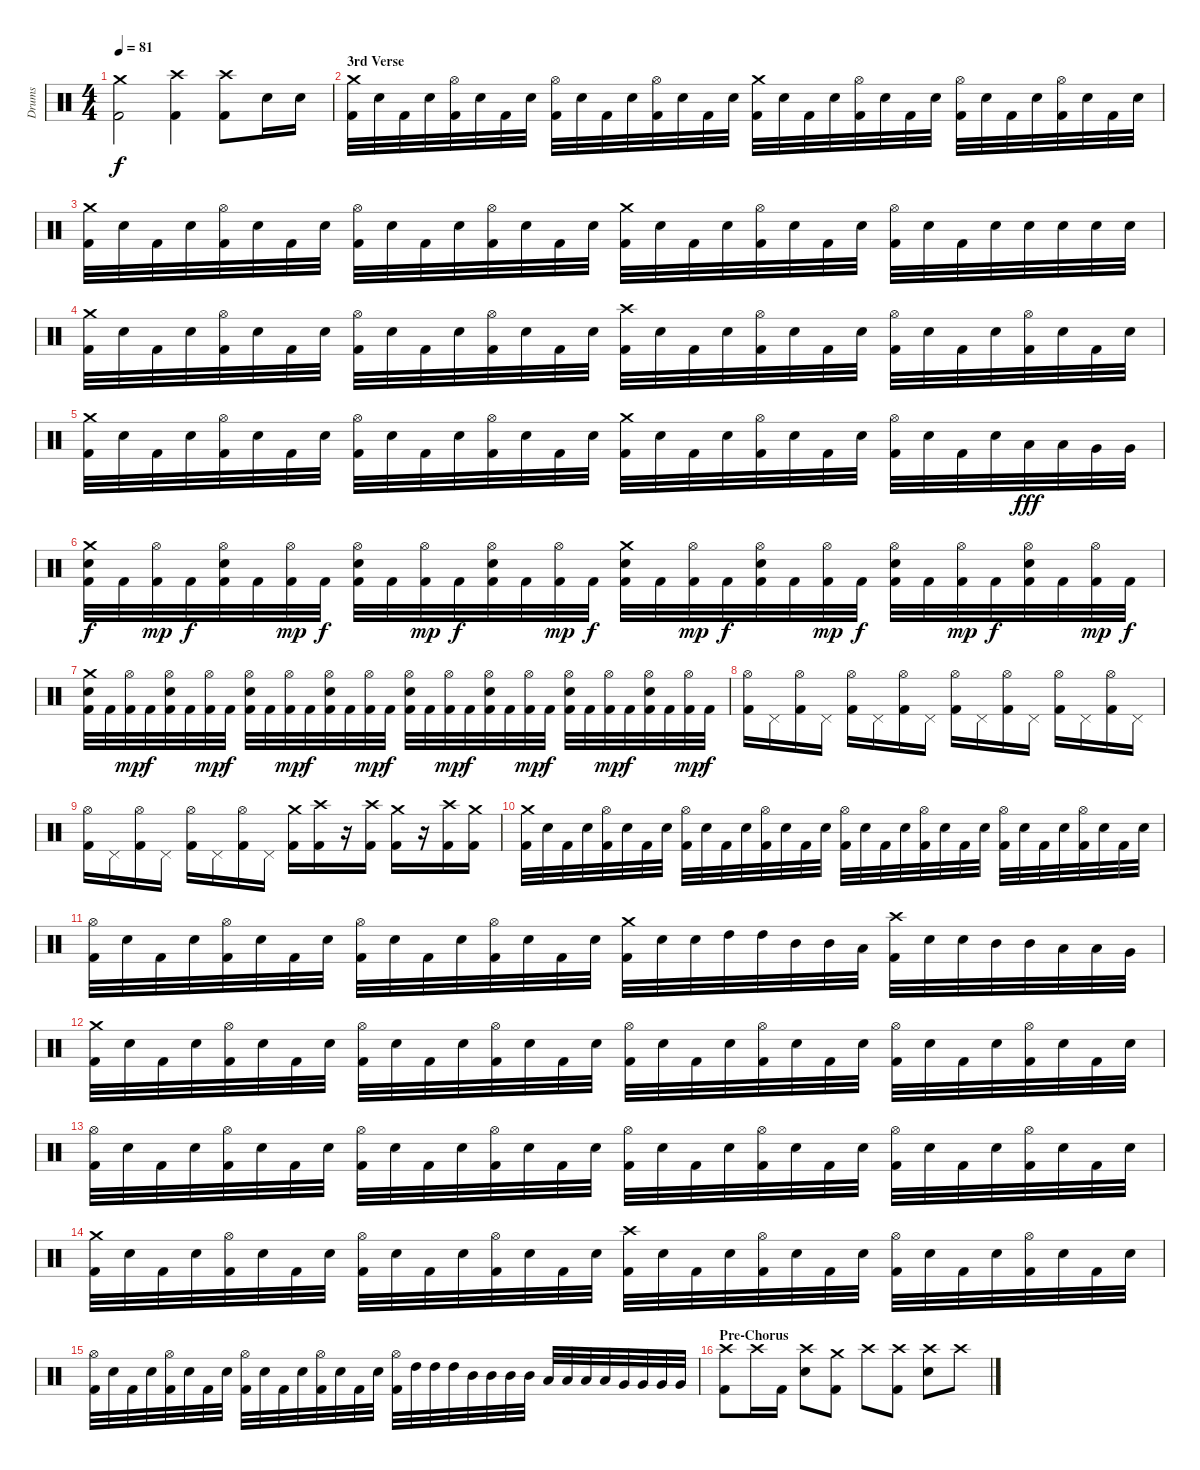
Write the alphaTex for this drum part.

\track ("Drums" "Drums") {instrument percussion}
\staff {score}
\articulation defaults
\ts (4 4)
\tempo 81
\clef neutral
\ks c
("Crash medium (hit)" "Kick (hit) 2").2{dy f} ("Crash high (hit)" "Kick (hit) 2").4 ("Crash high (hit)" "Kick (hit) 2").8 "Electric Snare (hit)".16 "Electric Snare (hit)".16 |
\section ("" "3rd Verse")
("Crash medium (hit)" "Kick (hit) 2").32 "Electric Snare (hit)".32 "Kick (hit) 2".32 "Electric Snare (hit)".32 ("Hi-Hat (open)" "Kick (hit) 2").32 "Electric Snare (hit)".32 "Kick (hit) 2".32 "Electric Snare (hit)".32 ("Hi-Hat (open)" "Kick (hit) 2").32 "Electric Snare (hit)".32 "Kick (hit) 2".32 "Electric Snare (hit)".32 ("Hi-Hat (open)" "Kick (hit) 2").32 "Electric Snare (hit)".32 "Kick (hit) 2".32 "Electric Snare (hit)".32 ("Crash medium (hit)" "Kick (hit) 2").32 "Electric Snare (hit)".32 "Kick (hit) 2".32 "Electric Snare (hit)".32 ("Hi-Hat (open)" "Kick (hit) 2").32 "Electric Snare (hit)".32 "Kick (hit) 2".32 "Electric Snare (hit)".32 ("Hi-Hat (open)" "Kick (hit) 2").32 "Electric Snare (hit)".32 "Kick (hit) 2".32 "Electric Snare (hit)".32 ("Hi-Hat (open)" "Kick (hit) 2").32 "Electric Snare (hit)".32 "Kick (hit) 2".32 "Electric Snare (hit)".32 |
("Crash medium (hit)" "Kick (hit) 2").32 "Electric Snare (hit)".32 "Kick (hit) 2".32 "Electric Snare (hit)".32 ("Hi-Hat (open)" "Kick (hit) 2").32 "Electric Snare (hit)".32 "Kick (hit) 2".32 "Electric Snare (hit)".32 ("Hi-Hat (open)" "Kick (hit) 2").32 "Electric Snare (hit)".32 "Kick (hit) 2".32 "Electric Snare (hit)".32 ("Hi-Hat (open)" "Kick (hit) 2").32 "Electric Snare (hit)".32 "Kick (hit) 2".32 "Electric Snare (hit)".32 ("Crash medium (hit)" "Kick (hit) 2").32 "Electric Snare (hit)".32 "Kick (hit) 2".32 "Electric Snare (hit)".32 ("Hi-Hat (open)" "Kick (hit) 2").32 "Electric Snare (hit)".32 "Kick (hit) 2".32 "Electric Snare (hit)".32 ("Hi-Hat (open)" "Kick (hit) 2").32 "Electric Snare (hit)".32 "Kick (hit) 2".32 "Electric Snare (hit)".32 "Electric Snare (hit)".32 "Electric Snare (hit)".32 "Electric Snare (hit)".32 "Electric Snare (hit)".32 |
("Crash medium (hit)" "Kick (hit) 2").32 "Electric Snare (hit)".32 "Kick (hit) 2".32 "Electric Snare (hit)".32 ("Hi-Hat (open)" "Kick (hit) 2").32 "Electric Snare (hit)".32 "Kick (hit) 2".32 "Electric Snare (hit)".32 ("Hi-Hat (open)" "Kick (hit) 2").32 "Electric Snare (hit)".32 "Kick (hit) 2".32 "Electric Snare (hit)".32 ("Hi-Hat (open)" "Kick (hit) 2").32 "Electric Snare (hit)".32 "Kick (hit) 2".32 "Electric Snare (hit)".32 ("Crash high (hit)" "Kick (hit) 2").32 "Electric Snare (hit)".32 "Kick (hit) 2".32 "Electric Snare (hit)".32 ("Hi-Hat (open)" "Kick (hit) 2").32 "Electric Snare (hit)".32 "Kick (hit) 2".32 "Electric Snare (hit)".32 ("Hi-Hat (open)" "Kick (hit) 2").32 "Electric Snare (hit)".32 "Kick (hit) 2".32 "Electric Snare (hit)".32 ("Hi-Hat (open)" "Kick (hit) 2").32 "Electric Snare (hit)".32 "Kick (hit) 2".32 "Electric Snare (hit)".32 |
("Crash medium (hit)" "Kick (hit) 2").32 "Electric Snare (hit)".32 "Kick (hit) 2".32 "Electric Snare (hit)".32 ("Hi-Hat (open)" "Kick (hit) 2").32 "Electric Snare (hit)".32 "Kick (hit) 2".32 "Electric Snare (hit)".32 ("Hi-Hat (open)" "Kick (hit) 2").32 "Electric Snare (hit)".32 "Kick (hit) 2".32 "Electric Snare (hit)".32 ("Hi-Hat (open)" "Kick (hit) 2").32 "Electric Snare (hit)".32 "Kick (hit) 2".32 "Electric Snare (hit)".32 ("Crash medium (hit)" "Kick (hit) 2").32 "Electric Snare (hit)".32 "Kick (hit) 2".32 "Electric Snare (hit)".32 ("Hi-Hat (open)" "Kick (hit) 2").32 "Electric Snare (hit)".32 "Kick (hit) 2".32 "Electric Snare (hit)".32 ("Hi-Hat (open)" "Kick (hit) 2").32 "Electric Snare (hit)".32 "Kick (hit) 2".32 "Electric Snare (hit)".32 "Low Tom (hit)".32{dy fff} "Low Tom (hit)".32 "Very Low Tom (hit)".32 "Very Low Tom (hit)".32 |
("Crash medium (hit)" "Electric Snare (hit)" "Kick (hit) 2").32{dy f} "Kick (hit) 2".32 ("Hi-Hat (open)" "Kick (hit) 2").32{dy mp} "Kick (hit) 2".32{dy f} ("Hi-Hat (open)" "Electric Snare (hit)" "Kick (hit) 2").32 "Kick (hit) 2".32 ("Hi-Hat (open)" "Kick (hit) 2").32{dy mp} "Kick (hit) 2".32{dy f} ("Hi-Hat (open)" "Electric Snare (hit)" "Kick (hit) 2").32 "Kick (hit) 2".32 ("Hi-Hat (open)" "Kick (hit) 2").32{dy mp} "Kick (hit) 2".32{dy f} ("Hi-Hat (open)" "Electric Snare (hit)" "Kick (hit) 2").32 "Kick (hit) 2".32 ("Hi-Hat (open)" "Kick (hit) 2").32{dy mp} "Kick (hit) 2".32{dy f} ("Crash medium (hit)" "Electric Snare (hit)" "Kick (hit) 2").32 "Kick (hit) 2".32 ("Hi-Hat (open)" "Kick (hit) 2").32{dy mp} "Kick (hit) 2".32{dy f} ("Hi-Hat (open)" "Electric Snare (hit)" "Kick (hit) 2").32 "Kick (hit) 2".32 ("Hi-Hat (open)" "Kick (hit) 2").32{dy mp} "Kick (hit) 2".32{dy f} ("Hi-Hat (open)" "Electric Snare (hit)" "Kick (hit) 2").32 "Kick (hit) 2".32 ("Hi-Hat (open)" "Kick (hit) 2").32{dy mp} "Kick (hit) 2".32{dy f} ("Hi-Hat (open)" "Electric Snare (hit)" "Kick (hit) 2").32 "Kick (hit) 2".32 ("Hi-Hat (open)" "Kick (hit) 2").32{dy mp} "Kick (hit) 2".32{dy f} |
("Crash medium (hit)" "Electric Snare (hit)" "Kick (hit) 2").32 "Kick (hit) 2".32 ("Hi-Hat (open)" "Kick (hit) 2").32{dy mp} "Kick (hit) 2".32{dy f} ("Hi-Hat (open)" "Electric Snare (hit)" "Kick (hit) 2").32 "Kick (hit) 2".32 ("Hi-Hat (open)" "Kick (hit) 2").32{dy mp} "Kick (hit) 2".32{dy f} ("Hi-Hat (open)" "Electric Snare (hit)" "Kick (hit) 2").32 "Kick (hit) 2".32 ("Hi-Hat (open)" "Kick (hit) 2").32{dy mp} "Kick (hit) 2".32{dy f} ("Hi-Hat (open)" "Electric Snare (hit)" "Kick (hit) 2").32 "Kick (hit) 2".32 ("Hi-Hat (open)" "Kick (hit) 2").32{dy mp} "Kick (hit) 2".32{dy f} ("Hi-Hat (open)" "Electric Snare (hit)" "Kick (hit) 2").32 "Kick (hit) 2".32 ("Hi-Hat (open)" "Kick (hit) 2").32{dy mp} "Kick (hit) 2".32{dy f} ("Hi-Hat (open)" "Electric Snare (hit)" "Kick (hit) 2").32 "Kick (hit) 2".32 ("Hi-Hat (open)" "Kick (hit) 2").32{dy mp} "Kick (hit) 2".32{dy f} ("Hi-Hat (open)" "Electric Snare (hit)" "Kick (hit) 2").32 "Kick (hit) 2".32 ("Hi-Hat (open)" "Kick (hit) 2").32{dy mp} "Kick (hit) 2".32{dy f} ("Hi-Hat (open)" "Electric Snare (hit)" "Kick (hit) 2").32 "Kick (hit) 2".32 ("Hi-Hat (open)" "Kick (hit) 2").32{dy mp} "Kick (hit) 2".32{dy f} |
("Hi-Hat (open)" "Kick (hit) 2").16 "Pedal Hi-Hat (hit)".16 ("Hi-Hat (open)" "Kick (hit) 2").16 "Pedal Hi-Hat (hit)".16 ("Hi-Hat (open)" "Kick (hit) 2").16 "Pedal Hi-Hat (hit)".16 ("Hi-Hat (open)" "Kick (hit) 2").16 "Pedal Hi-Hat (hit)".16 ("Hi-Hat (open)" "Kick (hit) 2").16 "Pedal Hi-Hat (hit)".16 ("Hi-Hat (open)" "Kick (hit) 2").16 "Pedal Hi-Hat (hit)".16 ("Hi-Hat (open)" "Kick (hit) 2").16 "Pedal Hi-Hat (hit)".16 ("Hi-Hat (open)" "Kick (hit) 2").16 "Pedal Hi-Hat (hit)".16 |
("Hi-Hat (open)" "Kick (hit) 2").16 "Pedal Hi-Hat (hit)".16 ("Hi-Hat (open)" "Kick (hit) 2").16 "Pedal Hi-Hat (hit)".16 ("Hi-Hat (open)" "Kick (hit) 2").16 "Pedal Hi-Hat (hit)".16 ("Hi-Hat (open)" "Kick (hit) 2").16 "Pedal Hi-Hat (hit)".16 ("Crash medium (hit)" "Kick (hit) 2").16 ("Crash high (hit)" "Kick (hit) 2").16 r.16 ("Crash high (hit)" "Kick (hit) 2").16 ("Crash medium (hit)" "Kick (hit) 2").16 r.16 ("Crash high (hit)" "Kick (hit) 2").16 ("Crash medium (hit)" "Kick (hit) 2").16 |
("Crash medium (hit)" "Kick (hit) 2").32 "Electric Snare (hit)".32 "Kick (hit) 2".32 "Electric Snare (hit)".32 ("Hi-Hat (open)" "Kick (hit) 2").32 "Electric Snare (hit)".32 "Kick (hit) 2".32 "Electric Snare (hit)".32 ("Hi-Hat (open)" "Kick (hit) 2").32 "Electric Snare (hit)".32 "Kick (hit) 2".32 "Electric Snare (hit)".32 ("Hi-Hat (open)" "Kick (hit) 2").32 "Electric Snare (hit)".32 "Kick (hit) 2".32 "Electric Snare (hit)".32 ("Hi-Hat (open)" "Kick (hit) 2").32 "Electric Snare (hit)".32 "Kick (hit) 2".32 "Electric Snare (hit)".32 ("Hi-Hat (open)" "Kick (hit) 2").32 "Electric Snare (hit)".32 "Kick (hit) 2".32 "Electric Snare (hit)".32 ("Hi-Hat (open)" "Kick (hit) 2").32 "Electric Snare (hit)".32 "Kick (hit) 2".32 "Electric Snare (hit)".32 ("Hi-Hat (open)" "Kick (hit) 2").32 "Electric Snare (hit)".32 "Kick (hit) 2".32 "Electric Snare (hit)".32 |
("Hi-Hat (open)" "Kick (hit) 2").32 "Electric Snare (hit)".32 "Kick (hit) 2".32 "Electric Snare (hit)".32 ("Hi-Hat (open)" "Kick (hit) 2").32 "Electric Snare (hit)".32 "Kick (hit) 2".32 "Electric Snare (hit)".32 ("Hi-Hat (open)" "Kick (hit) 2").32 "Electric Snare (hit)".32 "Kick (hit) 2".32 "Electric Snare (hit)".32 ("Hi-Hat (open)" "Kick (hit) 2").32 "Electric Snare (hit)".32 "Kick (hit) 2".32 "Electric Snare (hit)".32 ("Crash medium (hit)" "Kick (hit) 2").32 "Electric Snare (hit)".32 "Electric Snare (hit)".32 "High Tom (hit)".32 "High Tom (hit)".32 "Mid Tom (hit)".32 "Mid Tom (hit)".32 "Low Tom (hit)".32 ("Crash high (hit)" "Kick (hit) 2").32 "Electric Snare (hit)".32 "Electric Snare (hit)".32 "Mid Tom (hit)".32 "Mid Tom (hit)".32 "Low Tom (hit)".32 "Low Tom (hit)".32 "Very Low Tom (hit)".32 |
("Crash medium (hit)" "Kick (hit) 2").32 "Electric Snare (hit)".32 "Kick (hit) 2".32 "Electric Snare (hit)".32 ("Hi-Hat (open)" "Kick (hit) 2").32 "Electric Snare (hit)".32 "Kick (hit) 2".32 "Electric Snare (hit)".32 ("Hi-Hat (open)" "Kick (hit) 2").32 "Electric Snare (hit)".32 "Kick (hit) 2".32 "Electric Snare (hit)".32 ("Hi-Hat (open)" "Kick (hit) 2").32 "Electric Snare (hit)".32 "Kick (hit) 2".32 "Electric Snare (hit)".32 ("Hi-Hat (open)" "Kick (hit) 2").32 "Electric Snare (hit)".32 "Kick (hit) 2".32 "Electric Snare (hit)".32 ("Hi-Hat (open)" "Kick (hit) 2").32 "Electric Snare (hit)".32 "Kick (hit) 2".32 "Electric Snare (hit)".32 ("Hi-Hat (open)" "Kick (hit) 2").32 "Electric Snare (hit)".32 "Kick (hit) 2".32 "Electric Snare (hit)".32 ("Hi-Hat (open)" "Kick (hit) 2").32 "Electric Snare (hit)".32 "Kick (hit) 2".32 "Electric Snare (hit)".32 |
("Hi-Hat (open)" "Kick (hit) 2").32 "Electric Snare (hit)".32 "Kick (hit) 2".32 "Electric Snare (hit)".32 ("Hi-Hat (open)" "Kick (hit) 2").32 "Electric Snare (hit)".32 "Kick (hit) 2".32 "Electric Snare (hit)".32 ("Hi-Hat (open)" "Kick (hit) 2").32 "Electric Snare (hit)".32 "Kick (hit) 2".32 "Electric Snare (hit)".32 ("Hi-Hat (open)" "Kick (hit) 2").32 "Electric Snare (hit)".32 "Kick (hit) 2".32 "Electric Snare (hit)".32 ("Hi-Hat (open)" "Kick (hit) 2").32 "Electric Snare (hit)".32 "Kick (hit) 2".32 "Electric Snare (hit)".32 ("Hi-Hat (open)" "Kick (hit) 2").32 "Electric Snare (hit)".32 "Kick (hit) 2".32 "Electric Snare (hit)".32 ("Hi-Hat (open)" "Kick (hit) 2").32 "Electric Snare (hit)".32 "Kick (hit) 2".32 "Electric Snare (hit)".32 ("Hi-Hat (open)" "Kick (hit) 2").32 "Electric Snare (hit)".32 "Kick (hit) 2".32 "Electric Snare (hit)".32 |
("Crash medium (hit)" "Kick (hit) 2").32 "Electric Snare (hit)".32 "Kick (hit) 2".32 "Electric Snare (hit)".32 ("Hi-Hat (open)" "Kick (hit) 2").32 "Electric Snare (hit)".32 "Kick (hit) 2".32 "Electric Snare (hit)".32 ("Hi-Hat (open)" "Kick (hit) 2").32 "Electric Snare (hit)".32 "Kick (hit) 2".32 "Electric Snare (hit)".32 ("Hi-Hat (open)" "Kick (hit) 2").32 "Electric Snare (hit)".32 "Kick (hit) 2".32 "Electric Snare (hit)".32 ("Crash high (hit)" "Kick (hit) 2").32 "Electric Snare (hit)".32 "Kick (hit) 2".32 "Electric Snare (hit)".32 ("Hi-Hat (open)" "Kick (hit) 2").32 "Electric Snare (hit)".32 "Kick (hit) 2".32 "Electric Snare (hit)".32 ("Hi-Hat (open)" "Kick (hit) 2").32 "Electric Snare (hit)".32 "Kick (hit) 2".32 "Electric Snare (hit)".32 ("Hi-Hat (open)" "Kick (hit) 2").32 "Electric Snare (hit)".32 "Kick (hit) 2".32 "Electric Snare (hit)".32 |
("Hi-Hat (open)" "Kick (hit) 2").32 "Electric Snare (hit)".32 "Kick (hit) 2".32 "Electric Snare (hit)".32 ("Hi-Hat (open)" "Kick (hit) 2").32 "Electric Snare (hit)".32 "Kick (hit) 2".32 "Electric Snare (hit)".32 ("Hi-Hat (open)" "Kick (hit) 2").32 "Electric Snare (hit)".32 "Kick (hit) 2".32 "Electric Snare (hit)".32 ("Hi-Hat (open)" "Kick (hit) 2").32 "Electric Snare (hit)".32 "Kick (hit) 2".32 "Electric Snare (hit)".32 ("Hi-Hat (open)" "Kick (hit) 2").32 "High Tom (hit)".32 "High Tom (hit)".32 "High Tom (hit)".32 "Mid Tom (hit)".32 "Mid Tom (hit)".32 "Mid Tom (hit)".32 "Mid Tom (hit)".32 "Low Tom (hit)".32 "Low Tom (hit)".32 "Low Tom (hit)".32 "Low Tom (hit)".32 "Very Low Tom (hit)".32 "Very Low Tom (hit)".32 "Very Low Tom (hit)".32 "Very Low Tom (hit)".32 |
\section ("" "Pre-Chorus")
("Crash high (hit)" "Kick (hit) 2").8 "Crash high (hit)".16 "Kick (hit) 2".16 ("Crash high (hit)" "Electric Snare (hit)").8 ("Crash medium (hit)" "Kick (hit) 2").8 "Crash high (hit)".8 ("Crash high (hit)" "Kick (hit) 2").8 ("Crash high (hit)" "Electric Snare (hit)").8 "Crash high (hit)".8
